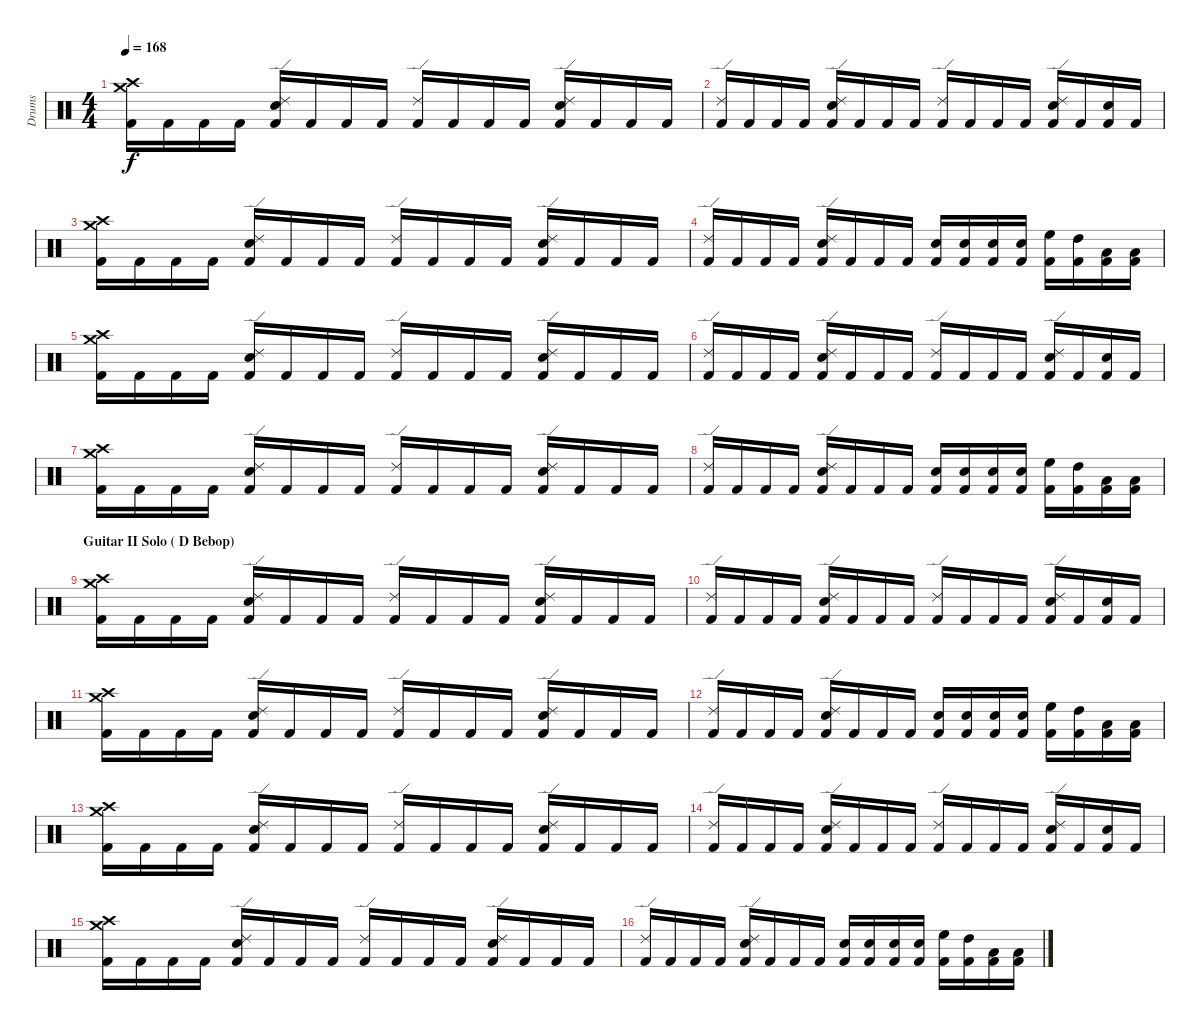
\track ("Drums" "Drums") {instrument percussion}
\staff {score}
\articulation defaults
\ts (4 4)
\tempo 168
\clef neutral
\ks c
("Crash medium (hit)" "Crash high (hit)" "Kick (hit) 2").16{dy f} "Kick (hit) 2".16 "Kick (hit) 2".16 "Kick (hit) 2".16 ("Ride (edge) 2" "Snare (hit) 2" "Kick (hit) 2").16 "Kick (hit) 2".16 "Kick (hit) 2".16 "Kick (hit) 2".16 ("Ride (edge) 2" "Kick (hit) 2").16 "Kick (hit) 2".16 "Kick (hit) 2".16 "Kick (hit) 2".16 ("Ride (edge) 2" "Snare (hit) 2" "Kick (hit) 2").16 "Kick (hit) 2".16 "Kick (hit) 2".16 "Kick (hit) 2".16 |
("Ride (edge) 2" "Kick (hit) 2").16 "Kick (hit) 2".16 "Kick (hit) 2".16 "Kick (hit) 2".16 ("Ride (edge) 2" "Snare (hit) 2" "Kick (hit) 2").16 "Kick (hit) 2".16 "Kick (hit) 2".16 "Kick (hit) 2".16 ("Ride (edge) 2" "Kick (hit) 2").16 "Kick (hit) 2".16 "Kick (hit) 2".16 "Kick (hit) 2".16 ("Ride (edge) 2" "Snare (hit) 2" "Kick (hit) 2").16 "Kick (hit) 2".16 ("Snare (hit) 2" "Kick (hit) 2").16 "Kick (hit) 2".16 |
("Crash medium (hit)" "Crash high (hit)" "Kick (hit) 2").16 "Kick (hit) 2".16 "Kick (hit) 2".16 "Kick (hit) 2".16 ("Ride (edge) 2" "Snare (hit) 2" "Kick (hit) 2").16 "Kick (hit) 2".16 "Kick (hit) 2".16 "Kick (hit) 2".16 ("Ride (edge) 2" "Kick (hit) 2").16 "Kick (hit) 2".16 "Kick (hit) 2".16 "Kick (hit) 2".16 ("Ride (edge) 2" "Snare (hit) 2" "Kick (hit) 2").16 "Kick (hit) 2".16 "Kick (hit) 2".16 "Kick (hit) 2".16 |
("Ride (edge) 2" "Kick (hit) 2").16 "Kick (hit) 2".16 "Kick (hit) 2".16 "Kick (hit) 2".16 ("Ride (edge) 2" "Snare (hit) 2" "Kick (hit) 2").16 "Kick (hit) 2".16 "Kick (hit) 2".16 "Kick (hit) 2".16 ("Snare (hit) 2" "Kick (hit) 2").16 ("Snare (hit) 2" "Kick (hit) 2").16 ("Snare (hit) 2" "Kick (hit) 2").16 ("Snare (hit) 2" "Kick (hit) 2").16 ("High Floor Tom (hit)" "Kick (hit) 2").16 ("High Tom (hit)" "Kick (hit) 2").16 ("Low Tom (hit)" "Kick (hit) 2").16 ("Low Floor Tom (hit)" "Kick (hit) 2").16 |
("Crash medium (hit)" "Crash high (hit)" "Kick (hit) 2").16 "Kick (hit) 2".16 "Kick (hit) 2".16 "Kick (hit) 2".16 ("Ride (edge) 2" "Snare (hit) 2" "Kick (hit) 2").16 "Kick (hit) 2".16 "Kick (hit) 2".16 "Kick (hit) 2".16 ("Ride (edge) 2" "Kick (hit) 2").16 "Kick (hit) 2".16 "Kick (hit) 2".16 "Kick (hit) 2".16 ("Ride (edge) 2" "Snare (hit) 2" "Kick (hit) 2").16 "Kick (hit) 2".16 "Kick (hit) 2".16 "Kick (hit) 2".16 |
("Ride (edge) 2" "Kick (hit) 2").16 "Kick (hit) 2".16 "Kick (hit) 2".16 "Kick (hit) 2".16 ("Ride (edge) 2" "Snare (hit) 2" "Kick (hit) 2").16 "Kick (hit) 2".16 "Kick (hit) 2".16 "Kick (hit) 2".16 ("Ride (edge) 2" "Kick (hit) 2").16 "Kick (hit) 2".16 "Kick (hit) 2".16 "Kick (hit) 2".16 ("Ride (edge) 2" "Snare (hit) 2" "Kick (hit) 2").16 "Kick (hit) 2".16 ("Snare (hit) 2" "Kick (hit) 2").16 "Kick (hit) 2".16 |
("Crash medium (hit)" "Crash high (hit)" "Kick (hit) 2").16 "Kick (hit) 2".16 "Kick (hit) 2".16 "Kick (hit) 2".16 ("Ride (edge) 2" "Snare (hit) 2" "Kick (hit) 2").16 "Kick (hit) 2".16 "Kick (hit) 2".16 "Kick (hit) 2".16 ("Ride (edge) 2" "Kick (hit) 2").16 "Kick (hit) 2".16 "Kick (hit) 2".16 "Kick (hit) 2".16 ("Ride (edge) 2" "Snare (hit) 2" "Kick (hit) 2").16 "Kick (hit) 2".16 "Kick (hit) 2".16 "Kick (hit) 2".16 |
("Ride (edge) 2" "Kick (hit) 2").16 "Kick (hit) 2".16 "Kick (hit) 2".16 "Kick (hit) 2".16 ("Ride (edge) 2" "Snare (hit) 2" "Kick (hit) 2").16 "Kick (hit) 2".16 "Kick (hit) 2".16 "Kick (hit) 2".16 ("Snare (hit) 2" "Kick (hit) 2").16 ("Snare (hit) 2" "Kick (hit) 2").16 ("Snare (hit) 2" "Kick (hit) 2").16 ("Snare (hit) 2" "Kick (hit) 2").16 ("High Floor Tom (hit)" "Kick (hit) 2").16 ("High Tom (hit)" "Kick (hit) 2").16 ("Low Tom (hit)" "Kick (hit) 2").16 ("Low Floor Tom (hit)" "Kick (hit) 2").16 |
\section ("" "Guitar II Solo ( D Bebop)")
("Crash medium (hit)" "Crash high (hit)" "Kick (hit) 2").16 "Kick (hit) 2".16 "Kick (hit) 2".16 "Kick (hit) 2".16 ("Ride (edge) 2" "Snare (hit) 2" "Kick (hit) 2").16 "Kick (hit) 2".16 "Kick (hit) 2".16 "Kick (hit) 2".16 ("Ride (edge) 2" "Kick (hit) 2").16 "Kick (hit) 2".16 "Kick (hit) 2".16 "Kick (hit) 2".16 ("Ride (edge) 2" "Snare (hit) 2" "Kick (hit) 2").16 "Kick (hit) 2".16 "Kick (hit) 2".16 "Kick (hit) 2".16 |
("Ride (edge) 2" "Kick (hit) 2").16 "Kick (hit) 2".16 "Kick (hit) 2".16 "Kick (hit) 2".16 ("Ride (edge) 2" "Snare (hit) 2" "Kick (hit) 2").16 "Kick (hit) 2".16 "Kick (hit) 2".16 "Kick (hit) 2".16 ("Ride (edge) 2" "Kick (hit) 2").16 "Kick (hit) 2".16 "Kick (hit) 2".16 "Kick (hit) 2".16 ("Ride (edge) 2" "Snare (hit) 2" "Kick (hit) 2").16 "Kick (hit) 2".16 ("Snare (hit) 2" "Kick (hit) 2").16 "Kick (hit) 2".16 |
("Crash medium (hit)" "Crash high (hit)" "Kick (hit) 2").16 "Kick (hit) 2".16 "Kick (hit) 2".16 "Kick (hit) 2".16 ("Ride (edge) 2" "Snare (hit) 2" "Kick (hit) 2").16 "Kick (hit) 2".16 "Kick (hit) 2".16 "Kick (hit) 2".16 ("Ride (edge) 2" "Kick (hit) 2").16 "Kick (hit) 2".16 "Kick (hit) 2".16 "Kick (hit) 2".16 ("Ride (edge) 2" "Snare (hit) 2" "Kick (hit) 2").16 "Kick (hit) 2".16 "Kick (hit) 2".16 "Kick (hit) 2".16 |
("Ride (edge) 2" "Kick (hit) 2").16 "Kick (hit) 2".16 "Kick (hit) 2".16 "Kick (hit) 2".16 ("Ride (edge) 2" "Snare (hit) 2" "Kick (hit) 2").16 "Kick (hit) 2".16 "Kick (hit) 2".16 "Kick (hit) 2".16 ("Snare (hit) 2" "Kick (hit) 2").16 ("Snare (hit) 2" "Kick (hit) 2").16 ("Snare (hit) 2" "Kick (hit) 2").16 ("Snare (hit) 2" "Kick (hit) 2").16 ("High Floor Tom (hit)" "Kick (hit) 2").16 ("High Tom (hit)" "Kick (hit) 2").16 ("Low Tom (hit)" "Kick (hit) 2").16 ("Low Floor Tom (hit)" "Kick (hit) 2").16 |
("Crash medium (hit)" "Crash high (hit)" "Kick (hit) 2").16 "Kick (hit) 2".16 "Kick (hit) 2".16 "Kick (hit) 2".16 ("Ride (edge) 2" "Snare (hit) 2" "Kick (hit) 2").16 "Kick (hit) 2".16 "Kick (hit) 2".16 "Kick (hit) 2".16 ("Ride (edge) 2" "Kick (hit) 2").16 "Kick (hit) 2".16 "Kick (hit) 2".16 "Kick (hit) 2".16 ("Ride (edge) 2" "Snare (hit) 2" "Kick (hit) 2").16 "Kick (hit) 2".16 "Kick (hit) 2".16 "Kick (hit) 2".16 |
("Ride (edge) 2" "Kick (hit) 2").16 "Kick (hit) 2".16 "Kick (hit) 2".16 "Kick (hit) 2".16 ("Ride (edge) 2" "Snare (hit) 2" "Kick (hit) 2").16 "Kick (hit) 2".16 "Kick (hit) 2".16 "Kick (hit) 2".16 ("Ride (edge) 2" "Kick (hit) 2").16 "Kick (hit) 2".16 "Kick (hit) 2".16 "Kick (hit) 2".16 ("Ride (edge) 2" "Snare (hit) 2" "Kick (hit) 2").16 "Kick (hit) 2".16 ("Snare (hit) 2" "Kick (hit) 2").16 "Kick (hit) 2".16 |
("Crash medium (hit)" "Crash high (hit)" "Kick (hit) 2").16 "Kick (hit) 2".16 "Kick (hit) 2".16 "Kick (hit) 2".16 ("Ride (edge) 2" "Snare (hit) 2" "Kick (hit) 2").16 "Kick (hit) 2".16 "Kick (hit) 2".16 "Kick (hit) 2".16 ("Ride (edge) 2" "Kick (hit) 2").16 "Kick (hit) 2".16 "Kick (hit) 2".16 "Kick (hit) 2".16 ("Ride (edge) 2" "Snare (hit) 2" "Kick (hit) 2").16 "Kick (hit) 2".16 "Kick (hit) 2".16 "Kick (hit) 2".16 |
("Ride (edge) 2" "Kick (hit) 2").16 "Kick (hit) 2".16 "Kick (hit) 2".16 "Kick (hit) 2".16 ("Ride (edge) 2" "Snare (hit) 2" "Kick (hit) 2").16 "Kick (hit) 2".16 "Kick (hit) 2".16 "Kick (hit) 2".16 ("Snare (hit) 2" "Kick (hit) 2").16 ("Snare (hit) 2" "Kick (hit) 2").16 ("Snare (hit) 2" "Kick (hit) 2").16 ("Snare (hit) 2" "Kick (hit) 2").16 ("High Floor Tom (hit)" "Kick (hit) 2").16 ("High Tom (hit)" "Kick (hit) 2").16 ("Low Tom (hit)" "Kick (hit) 2").16 ("Low Floor Tom (hit)" "Kick (hit) 2").16
